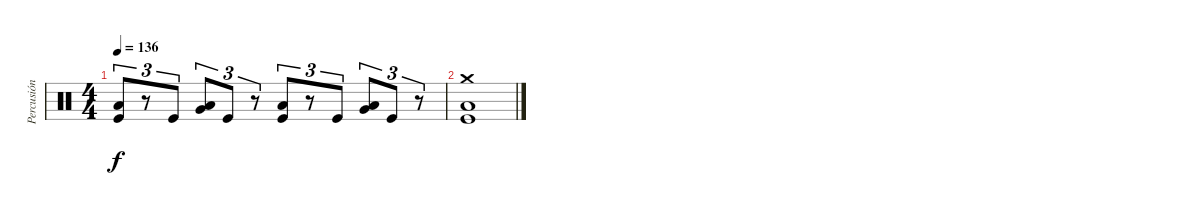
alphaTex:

\track ("Percusión" "Percusión") {instrument percussion}
\staff {score}
\articulation defaults
\ts (4 4)
\tempo 136
\clef neutral
\ks c
("Low Floor Tom (hit)" "Kick (hit)").8{tu (3 2) dy f} r.8{tu (3 2)} "Kick (hit)".8{tu (3 2)} ("Very Low Tom (hit)" "Low Floor Tom (hit)").8{tu (3 2)} "Kick (hit)".8{tu (3 2)} r.8{tu (3 2)} ("Low Floor Tom (hit)" "Kick (hit)").8{tu (3 2)} r.8{tu (3 2)} "Kick (hit)".8{tu (3 2)} ("Very Low Tom (hit)" "Low Floor Tom (hit)").8{tu (3 2)} "Kick (hit)".8{tu (3 2)} r.8{tu (3 2)} |
("Crash medium (hit)" "Low Floor Tom (hit)" "Kick (hit)").1
